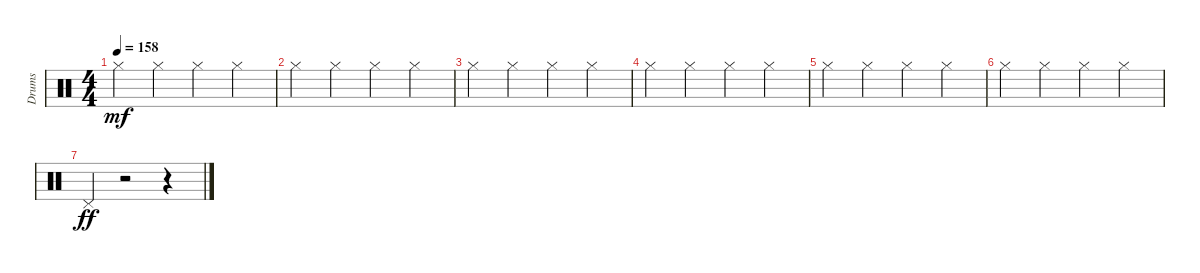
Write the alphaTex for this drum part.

\track ("Drums" "Drums") {instrument percussion}
\staff {score}
\articulation defaults
\ts (4 4)
\tempo 158
\clef neutral
\ks c "Hi-Hat (closed)".4{dy mf} "Hi-Hat (closed)".4 "Hi-Hat (closed)".4 "Hi-Hat (closed)".4
|
"Hi-Hat (closed)".4 "Hi-Hat (closed)".4 "Hi-Hat (closed)".4 "Hi-Hat (closed)".4 |
"Hi-Hat (closed)".4 "Hi-Hat (closed)".4 "Hi-Hat (closed)".4 "Hi-Hat (closed)".4 |
"Hi-Hat (closed)".4 "Hi-Hat (closed)".4 "Hi-Hat (closed)".4 "Hi-Hat (closed)".4 |
"Hi-Hat (closed)".4 "Hi-Hat (closed)".4 "Hi-Hat (closed)".4 "Hi-Hat (closed)".4 |
"Hi-Hat (closed)".4 "Hi-Hat (closed)".4 "Hi-Hat (closed)".4 "Hi-Hat (closed)".4 |
"Pedal Hi-Hat (hit)".4{dy ff} r.2 r.4
